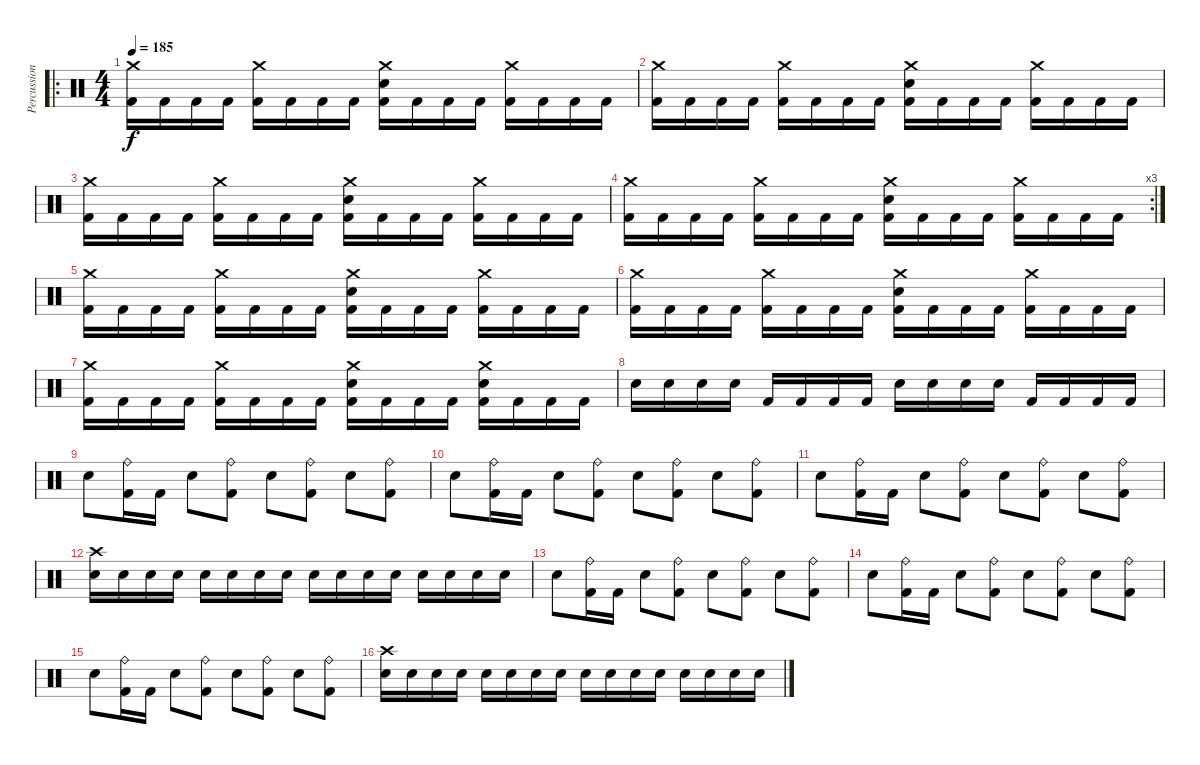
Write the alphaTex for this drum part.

\track ("Percussion" "Percussion") {instrument percussion}
\staff {score}
\articulation defaults
\ro
\ts (4 4)
\tempo 185
\clef neutral
\ks c
("Crash medium (hit)" "Kick (hit) 2").16{dy f} "Kick (hit) 2".16 "Kick (hit) 2".16 "Kick (hit) 2".16 ("Crash medium (hit)" "Kick (hit) 2").16 "Kick (hit) 2".16 "Kick (hit) 2".16 "Kick (hit) 2".16 ("Crash medium (hit)" "Snare (hit) 2" "Kick (hit) 2").16 "Kick (hit) 2".16 "Kick (hit) 2".16 "Kick (hit) 2".16 ("Crash medium (hit)" "Kick (hit) 2").16 "Kick (hit) 2".16 "Kick (hit) 2".16 "Kick (hit) 2".16 |
("Crash medium (hit)" "Kick (hit) 2").16 "Kick (hit) 2".16 "Kick (hit) 2".16 "Kick (hit) 2".16 ("Crash medium (hit)" "Kick (hit) 2").16 "Kick (hit) 2".16 "Kick (hit) 2".16 "Kick (hit) 2".16 ("Crash medium (hit)" "Snare (hit) 2" "Kick (hit) 2").16 "Kick (hit) 2".16 "Kick (hit) 2".16 "Kick (hit) 2".16 ("Crash medium (hit)" "Kick (hit) 2").16 "Kick (hit) 2".16 "Kick (hit) 2".16 "Kick (hit) 2".16 |
("Crash medium (hit)" "Kick (hit) 2").16 "Kick (hit) 2".16 "Kick (hit) 2".16 "Kick (hit) 2".16 ("Crash medium (hit)" "Kick (hit) 2").16 "Kick (hit) 2".16 "Kick (hit) 2".16 "Kick (hit) 2".16 ("Crash medium (hit)" "Snare (hit) 2" "Kick (hit) 2").16 "Kick (hit) 2".16 "Kick (hit) 2".16 "Kick (hit) 2".16 ("Crash medium (hit)" "Kick (hit) 2").16 "Kick (hit) 2".16 "Kick (hit) 2".16 "Kick (hit) 2".16 |
\rc 3
("Crash medium (hit)" "Kick (hit) 2").16 "Kick (hit) 2".16 "Kick (hit) 2".16 "Kick (hit) 2".16 ("Crash medium (hit)" "Kick (hit) 2").16 "Kick (hit) 2".16 "Kick (hit) 2".16 "Kick (hit) 2".16 ("Crash medium (hit)" "Snare (hit) 2" "Kick (hit) 2").16 "Kick (hit) 2".16 "Kick (hit) 2".16 "Kick (hit) 2".16 ("Crash medium (hit)" "Kick (hit) 2").16 "Kick (hit) 2".16 "Kick (hit) 2".16 "Kick (hit) 2".16 |
("Crash medium (hit)" "Kick (hit) 2").16 "Kick (hit) 2".16 "Kick (hit) 2".16 "Kick (hit) 2".16 ("Crash medium (hit)" "Kick (hit) 2").16 "Kick (hit) 2".16 "Kick (hit) 2".16 "Kick (hit) 2".16 ("Crash medium (hit)" "Snare (hit) 2" "Kick (hit) 2").16 "Kick (hit) 2".16 "Kick (hit) 2".16 "Kick (hit) 2".16 ("Crash medium (hit)" "Kick (hit) 2").16 "Kick (hit) 2".16 "Kick (hit) 2".16 "Kick (hit) 2".16 |
("Crash medium (hit)" "Kick (hit) 2").16 "Kick (hit) 2".16 "Kick (hit) 2".16 "Kick (hit) 2".16 ("Crash medium (hit)" "Kick (hit) 2").16 "Kick (hit) 2".16 "Kick (hit) 2".16 "Kick (hit) 2".16 ("Crash medium (hit)" "Snare (hit) 2" "Kick (hit) 2").16 "Kick (hit) 2".16 "Kick (hit) 2".16 "Kick (hit) 2".16 ("Crash medium (hit)" "Kick (hit) 2").16 "Kick (hit) 2".16 "Kick (hit) 2".16 "Kick (hit) 2".16 |
("Crash medium (hit)" "Kick (hit) 2").16 "Kick (hit) 2".16 "Kick (hit) 2".16 "Kick (hit) 2".16 ("Crash medium (hit)" "Kick (hit) 2").16 "Kick (hit) 2".16 "Kick (hit) 2".16 "Kick (hit) 2".16 ("Crash medium (hit)" "Snare (hit) 2" "Kick (hit) 2").16 "Kick (hit) 2".16 "Kick (hit) 2".16 "Kick (hit) 2".16 ("Crash medium (hit)" "Snare (hit) 2" "Kick (hit) 2").16 "Kick (hit) 2".16 "Kick (hit) 2".16 "Kick (hit) 2".16 |
"Snare (hit) 2".16 "Snare (hit) 2".16 "Snare (hit) 2".16 "Snare (hit) 2".16 "Kick (hit) 2".16 "Kick (hit) 2".16 "Kick (hit) 2".16 "Kick (hit) 2".16 "Snare (hit) 2".16 "Snare (hit) 2".16 "Snare (hit) 2".16 "Snare (hit) 2".16 "Kick (hit) 2".16 "Kick (hit) 2".16 "Kick (hit) 2".16 "Kick (hit) 2".16 |
"Snare (hit) 2".8 ("Ride (bell)" "Kick (hit) 2").16 "Kick (hit) 2".16 "Snare (hit) 2".8 ("Ride (bell)" "Kick (hit) 2").8 "Snare (hit) 2".8 ("Ride (bell)" "Kick (hit) 2").8 "Snare (hit) 2".8 ("Ride (bell)" "Kick (hit) 2").8 |
"Snare (hit) 2".8 ("Ride (bell)" "Kick (hit) 2").16 "Kick (hit) 2".16 "Snare (hit) 2".8 ("Ride (bell)" "Kick (hit) 2").8 "Snare (hit) 2".8 ("Ride (bell)" "Kick (hit) 2").8 "Snare (hit) 2".8 ("Ride (bell)" "Kick (hit) 2").8 |
"Snare (hit) 2".8 ("Ride (bell)" "Kick (hit) 2").16 "Kick (hit) 2".16 "Snare (hit) 2".8 ("Ride (bell)" "Kick (hit) 2").8 "Snare (hit) 2".8 ("Ride (bell)" "Kick (hit) 2").8 "Snare (hit) 2".8 ("Ride (bell)" "Kick (hit) 2").8 |
("Crash high (hit)" "Snare (hit) 2").16 "Snare (hit) 2".16 "Snare (hit) 2".16 "Snare (hit) 2".16 "Snare (hit) 2".16 "Snare (hit) 2".16 "Snare (hit) 2".16 "Snare (hit) 2".16 "Snare (hit) 2".16 "Snare (hit) 2".16 "Snare (hit) 2".16 "Snare (hit) 2".16 "Snare (hit) 2".16 "Snare (hit) 2".16 "Snare (hit) 2".16 "Snare (hit) 2".16 |
"Snare (hit) 2".8 ("Ride (bell)" "Kick (hit) 2").16 "Kick (hit) 2".16 "Snare (hit) 2".8 ("Ride (bell)" "Kick (hit) 2").8 "Snare (hit) 2".8 ("Ride (bell)" "Kick (hit) 2").8 "Snare (hit) 2".8 ("Ride (bell)" "Kick (hit) 2").8 |
"Snare (hit) 2".8 ("Ride (bell)" "Kick (hit) 2").16 "Kick (hit) 2".16 "Snare (hit) 2".8 ("Ride (bell)" "Kick (hit) 2").8 "Snare (hit) 2".8 ("Ride (bell)" "Kick (hit) 2").8 "Snare (hit) 2".8 ("Ride (bell)" "Kick (hit) 2").8 |
"Snare (hit) 2".8 ("Ride (bell)" "Kick (hit) 2").16 "Kick (hit) 2".16 "Snare (hit) 2".8 ("Ride (bell)" "Kick (hit) 2").8 "Snare (hit) 2".8 ("Ride (bell)" "Kick (hit) 2").8 "Snare (hit) 2".8 ("Ride (bell)" "Kick (hit) 2").8 |
("Crash high (hit)" "Snare (hit) 2").16 "Snare (hit) 2".16 "Snare (hit) 2".16 "Snare (hit) 2".16 "Snare (hit) 2".16 "Snare (hit) 2".16 "Snare (hit) 2".16 "Snare (hit) 2".16 "Snare (hit) 2".16 "Snare (hit) 2".16 "Snare (hit) 2".16 "Snare (hit) 2".16 "Snare (hit) 2".16 "Snare (hit) 2".16 "Snare (hit) 2".16 "Snare (hit) 2".16
